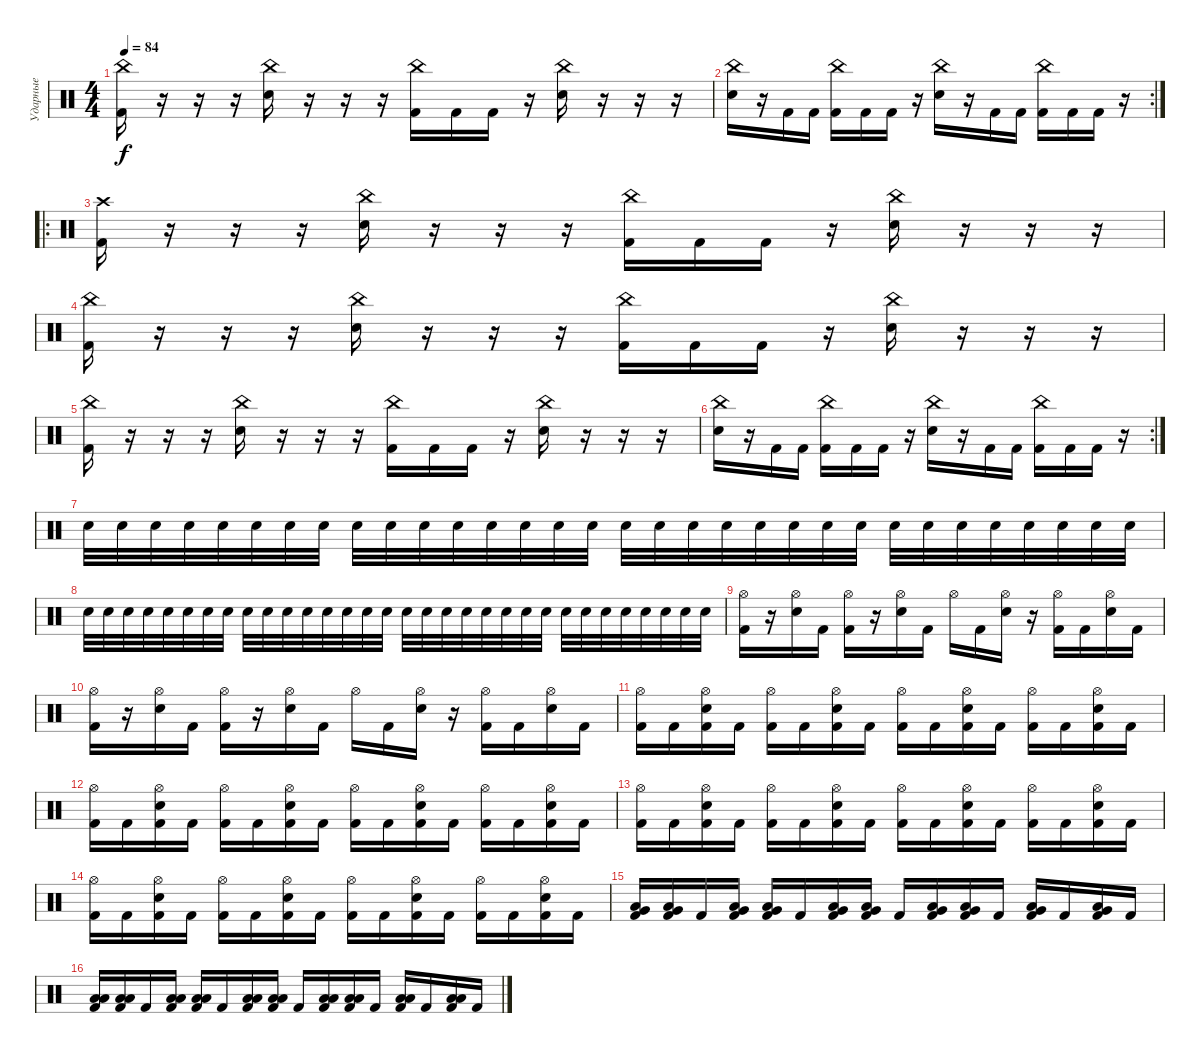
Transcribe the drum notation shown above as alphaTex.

\track ("Ударные" "Ударные") {instrument percussion}
\staff {score}
\articulation defaults
\ts (4 4)
\tempo 84
\clef neutral
\ks c
("China (hit)" "Kick (hit) 2").16{dy f} r.16 r.16 r.16 ("China (hit)" "Snare (hit) 2").16 r.16 r.16 r.16 ("China (hit)" "Kick (hit) 2").16 "Kick (hit) 2".16 "Kick (hit) 2".16 r.16 ("China (hit)" "Snare (hit) 2").16 r.16 r.16 r.16 |
\rc 2
("China (hit)" "Snare (hit) 2").16 r.16 "Kick (hit) 2".16 "Kick (hit) 2".16 ("China (hit)" "Kick (hit) 2").16 "Kick (hit) 2".16 "Kick (hit) 2".16 r.16 ("China (hit)" "Snare (hit) 2").16 r.16 "Kick (hit) 2".16 "Kick (hit) 2".16 ("China (hit)" "Kick (hit) 2").16 "Kick (hit) 2".16 "Kick (hit) 2".16 r.16 |
\ro
("Crash high (hit)" "Kick (hit) 2").16 r.16 r.16 r.16 ("China (hit)" "Snare (hit) 2").16 r.16 r.16 r.16 ("China (hit)" "Kick (hit) 2").16 "Kick (hit) 2".16 "Kick (hit) 2".16 r.16 ("China (hit)" "Snare (hit) 2").16 r.16 r.16 r.16 |
("China (hit)" "Kick (hit) 2").16 r.16 r.16 r.16 ("China (hit)" "Snare (hit) 2").16 r.16 r.16 r.16 ("China (hit)" "Kick (hit) 2").16 "Kick (hit) 2".16 "Kick (hit) 2".16 r.16 ("China (hit)" "Snare (hit) 2").16 r.16 r.16 r.16 |
("China (hit)" "Kick (hit) 2").16 r.16 r.16 r.16 ("China (hit)" "Snare (hit) 2").16 r.16 r.16 r.16 ("China (hit)" "Kick (hit) 2").16 "Kick (hit) 2".16 "Kick (hit) 2".16 r.16 ("China (hit)" "Snare (hit) 2").16 r.16 r.16 r.16 |
\rc 2
("China (hit)" "Snare (hit) 2").16 r.16 "Kick (hit) 2".16 "Kick (hit) 2".16 ("China (hit)" "Kick (hit) 2").16 "Kick (hit) 2".16 "Kick (hit) 2".16 r.16 ("China (hit)" "Snare (hit) 2").16 r.16 "Kick (hit) 2".16 "Kick (hit) 2".16 ("China (hit)" "Kick (hit) 2").16 "Kick (hit) 2".16 "Kick (hit) 2".16 r.16 |
"Snare (hit) 2".32{volume 1} "Snare (hit) 2".32{volume 13} "Snare (hit) 2".32 "Snare (hit) 2".32 "Snare (hit) 2".32 "Snare (hit) 2".32 "Snare (hit) 2".32 "Snare (hit) 2".32 "Snare (hit) 2".32 "Snare (hit) 2".32 "Snare (hit) 2".32 "Snare (hit) 2".32 "Snare (hit) 2".32 "Snare (hit) 2".32 "Snare (hit) 2".32 "Snare (hit) 2".32 "Snare (hit) 2".32 "Snare (hit) 2".32 "Snare (hit) 2".32 "Snare (hit) 2".32 "Snare (hit) 2".32 "Snare (hit) 2".32 "Snare (hit) 2".32 "Snare (hit) 2".32 "Snare (hit) 2".32 "Snare (hit) 2".32 "Snare (hit) 2".32 "Snare (hit) 2".32 "Snare (hit) 2".32 "Snare (hit) 2".32 "Snare (hit) 2".32 "Snare (hit) 2".32 |
"Snare (hit) 2".32 "Snare (hit) 2".32 "Snare (hit) 2".32 "Snare (hit) 2".32 "Snare (hit) 2".32 "Snare (hit) 2".32 "Snare (hit) 2".32 "Snare (hit) 2".32 "Snare (hit) 2".32 "Snare (hit) 2".32 "Snare (hit) 2".32 "Snare (hit) 2".32 "Snare (hit) 2".32 "Snare (hit) 2".32 "Snare (hit) 2".32 "Snare (hit) 2".32 "Snare (hit) 2".32 "Snare (hit) 2".32 "Snare (hit) 2".32 "Snare (hit) 2".32 "Snare (hit) 2".32 "Snare (hit) 2".32 "Snare (hit) 2".32 "Snare (hit) 2".32 "Snare (hit) 2".32 "Snare (hit) 2".32 "Snare (hit) 2".32 "Snare (hit) 2".32 "Snare (hit) 2".32 "Snare (hit) 2".32 "Snare (hit) 2".32 "Snare (hit) 2".32 |
("Hi-Hat (open)" "Kick (hit) 2").16 r.16 ("Hi-Hat (open)" "Snare (hit) 2").16 "Kick (hit) 2".16 ("Hi-Hat (open)" "Kick (hit) 2").16 r.16 ("Hi-Hat (open)" "Snare (hit) 2").16 "Kick (hit) 2".16 "Hi-Hat (open)".16 "Kick (hit) 2".16 ("Hi-Hat (open)" "Snare (hit) 2").16 r.16 ("Hi-Hat (open)" "Kick (hit) 2").16 "Kick (hit) 2".16 ("Hi-Hat (open)" "Snare (hit) 2").16 "Kick (hit) 2".16 |
("Hi-Hat (open)" "Kick (hit) 2").16 r.16 ("Hi-Hat (open)" "Snare (hit) 2").16 "Kick (hit) 2".16 ("Hi-Hat (open)" "Kick (hit) 2").16 r.16 ("Hi-Hat (open)" "Snare (hit) 2").16 "Kick (hit) 2".16 "Hi-Hat (open)".16 "Kick (hit) 2".16 ("Hi-Hat (open)" "Snare (hit) 2").16 r.16 ("Hi-Hat (open)" "Kick (hit) 2").16 "Kick (hit) 2".16 ("Hi-Hat (open)" "Snare (hit) 2").16 "Kick (hit) 2".16 |
("Hi-Hat (open)" "Kick (hit) 2").16 "Kick (hit) 2".16 ("Hi-Hat (open)" "Snare (hit) 2" "Kick (hit) 2").16 "Kick (hit) 2".16 ("Hi-Hat (open)" "Kick (hit) 2").16 "Kick (hit) 2".16 ("Hi-Hat (open)" "Snare (hit) 2" "Kick (hit) 2").16 "Kick (hit) 2".16 ("Hi-Hat (open)" "Kick (hit) 2").16 "Kick (hit) 2".16 ("Hi-Hat (open)" "Snare (hit) 2" "Kick (hit) 2").16 "Kick (hit) 2".16 ("Hi-Hat (open)" "Kick (hit) 2").16 "Kick (hit) 2".16 ("Hi-Hat (open)" "Snare (hit) 2" "Kick (hit) 2").16 "Kick (hit) 2".16 |
("Hi-Hat (open)" "Kick (hit) 2").16 "Kick (hit) 2".16 ("Hi-Hat (open)" "Snare (hit) 2" "Kick (hit) 2").16 "Kick (hit) 2".16 ("Hi-Hat (open)" "Kick (hit) 2").16 "Kick (hit) 2".16 ("Hi-Hat (open)" "Snare (hit) 2" "Kick (hit) 2").16 "Kick (hit) 2".16 ("Hi-Hat (open)" "Kick (hit) 2").16 "Kick (hit) 2".16 ("Hi-Hat (open)" "Snare (hit) 2" "Kick (hit) 2").16 "Kick (hit) 2".16 ("Hi-Hat (open)" "Kick (hit) 2").16 "Kick (hit) 2".16 ("Hi-Hat (open)" "Snare (hit) 2" "Kick (hit) 2").16 "Kick (hit) 2".16 |
("Hi-Hat (open)" "Kick (hit) 2").16 "Kick (hit) 2".16 ("Hi-Hat (open)" "Snare (hit) 2" "Kick (hit) 2").16 "Kick (hit) 2".16 ("Hi-Hat (open)" "Kick (hit) 2").16 "Kick (hit) 2".16 ("Hi-Hat (open)" "Snare (hit) 2" "Kick (hit) 2").16 "Kick (hit) 2".16 ("Hi-Hat (open)" "Kick (hit) 2").16 "Kick (hit) 2".16 ("Hi-Hat (open)" "Snare (hit) 2" "Kick (hit) 2").16 "Kick (hit) 2".16 ("Hi-Hat (open)" "Kick (hit) 2").16 "Kick (hit) 2".16 ("Hi-Hat (open)" "Snare (hit) 2" "Kick (hit) 2").16 "Kick (hit) 2".16 |
("Hi-Hat (open)" "Kick (hit) 2").16 "Kick (hit) 2".16 ("Hi-Hat (open)" "Snare (hit) 2" "Kick (hit) 2").16 "Kick (hit) 2".16 ("Hi-Hat (open)" "Kick (hit) 2").16 "Kick (hit) 2".16 ("Hi-Hat (open)" "Snare (hit) 2" "Kick (hit) 2").16 "Kick (hit) 2".16 ("Hi-Hat (open)" "Kick (hit) 2").16 "Kick (hit) 2".16 ("Hi-Hat (open)" "Snare (hit) 2" "Kick (hit) 2").16 "Kick (hit) 2".16 ("Hi-Hat (open)" "Kick (hit) 2").16 "Kick (hit) 2".16 ("Hi-Hat (open)" "Snare (hit) 2" "Kick (hit) 2").16 "Kick (hit) 2".16 |
("Low Tom (hit)" "Very Low Tom (hit)" "Kick (hit) 2").16 ("Low Tom (hit)" "Very Low Tom (hit)" "Kick (hit) 2").16 "Kick (hit) 2".16 ("Low Tom (hit)" "Very Low Tom (hit)" "Kick (hit) 2").16 ("Low Tom (hit)" "Very Low Tom (hit)" "Kick (hit) 2").16 "Kick (hit) 2".16 ("Low Tom (hit)" "Very Low Tom (hit)" "Kick (hit) 2").16 ("Low Tom (hit)" "Very Low Tom (hit)" "Kick (hit) 2").16 "Kick (hit) 2".16 ("Low Tom (hit)" "Very Low Tom (hit)" "Kick (hit) 2").16 ("Low Tom (hit)" "Very Low Tom (hit)" "Kick (hit) 2").16 "Kick (hit) 2".16 ("Low Tom (hit)" "Very Low Tom (hit)" "Kick (hit) 2").16 "Kick (hit) 2".16 ("Low Tom (hit)" "Very Low Tom (hit)" "Kick (hit) 2").16 "Kick (hit) 2".16 |
("Low Tom (hit)" "Low Floor Tom (hit)" "Kick (hit) 2").16 ("Low Tom (hit)" "Low Floor Tom (hit)" "Kick (hit) 2").16 "Kick (hit) 2".16 ("Low Tom (hit)" "Low Floor Tom (hit)" "Kick (hit) 2").16 ("Low Tom (hit)" "Low Floor Tom (hit)" "Kick (hit) 2").16 "Kick (hit) 2".16 ("Low Tom (hit)" "Low Floor Tom (hit)" "Kick (hit) 2").16 ("Low Tom (hit)" "Low Floor Tom (hit)" "Kick (hit) 2").16 "Kick (hit) 2".16 ("Low Tom (hit)" "Low Floor Tom (hit)" "Kick (hit) 2").16 ("Low Tom (hit)" "Low Floor Tom (hit)" "Kick (hit) 2").16 "Kick (hit) 2".16 ("Low Tom (hit)" "Low Floor Tom (hit)" "Kick (hit) 2").16 "Kick (hit) 2".16 ("Low Tom (hit)" "Low Floor Tom (hit)" "Kick (hit) 2").16 "Kick (hit) 2".16
